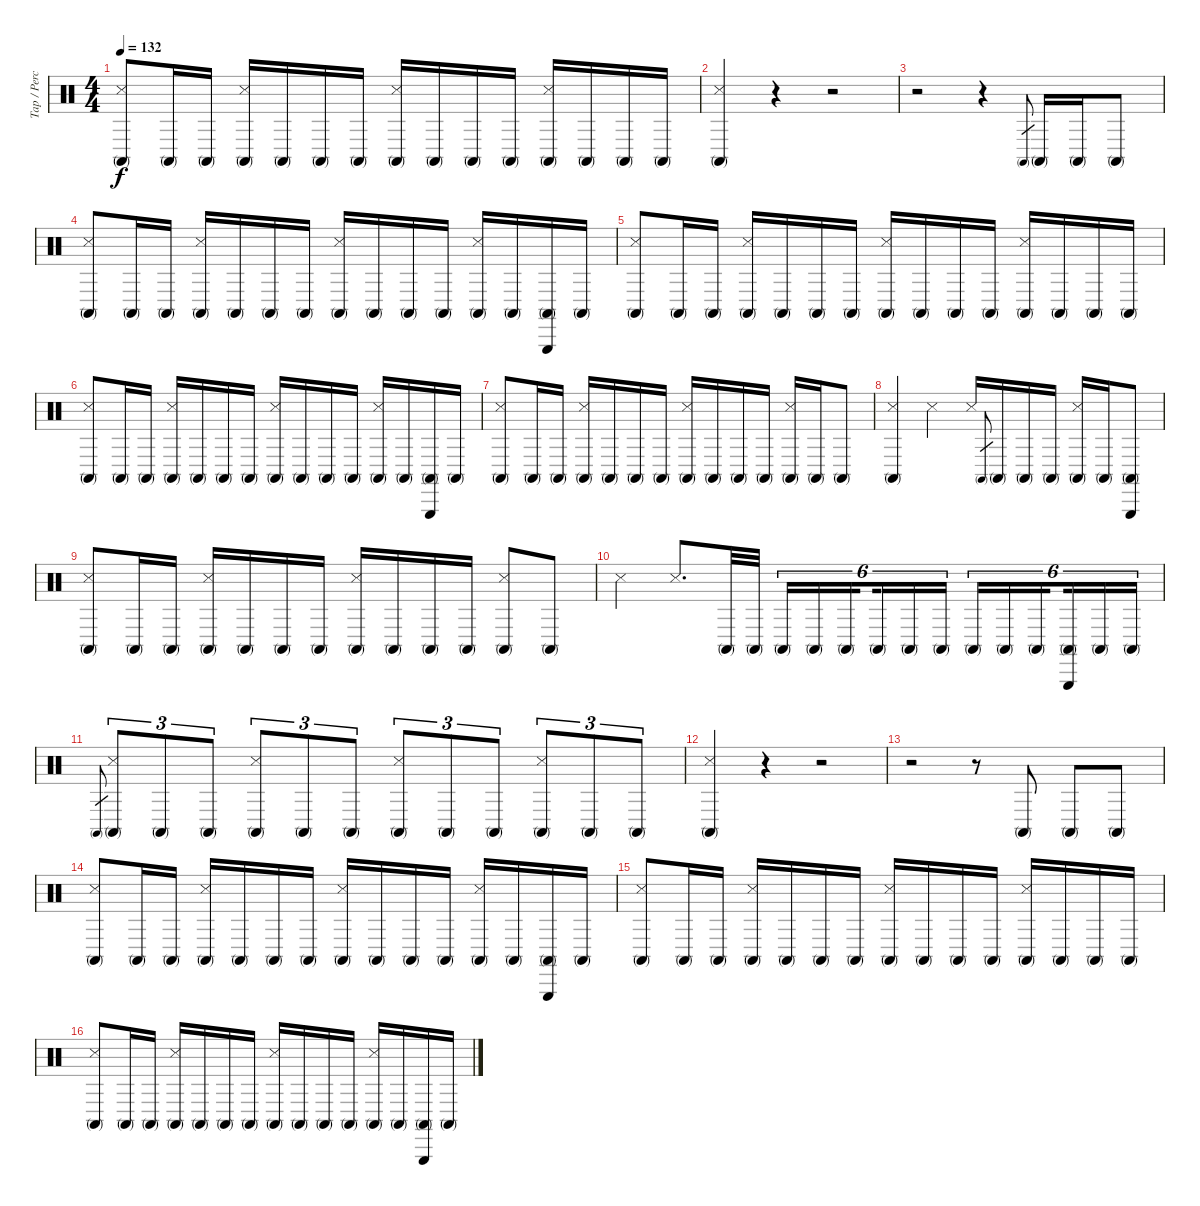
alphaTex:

\track ("Tap / Percussion" "Tap / Perc") {instrument percussion}
\staff {score}
\articulation defaults
\ts (4 4)
\tempo 132
\clef neutral
\ks c
("Conga high (mute)" "Snare (side stick) 3").8{dy f} "Conga high (mute)".16 "Conga high (mute)".16 ("Conga high (mute)" "Snare (side stick) 3").16 "Conga high (mute)".16 "Conga high (mute)".16 "Conga high (mute)".16 ("Conga high (mute)" "Snare (side stick) 3").16 "Conga high (mute)".16 "Conga high (mute)".16 "Conga high (mute)".16 ("Conga high (mute)" "Snare (side stick) 3").16 "Conga high (mute)".16 "Conga high (mute)".16 "Conga high (mute)".16 |
("Conga high (mute)" "Snare (side stick) 3").4 r.4 r.2 |
r.2 r.4 "Conga high (mute)".8{gr} "Conga high (mute)".16 "Conga high (mute)".16 "Conga high (mute)".8 |
("Conga high (mute)" "Snare (side stick) 3").8 "Conga high (mute)".16 "Conga high (mute)".16 ("Conga high (mute)" "Snare (side stick) 3").16 "Conga high (mute)".16 "Conga high (mute)".16 "Conga high (mute)".16 ("Conga high (mute)" "Snare (side stick) 3").16 "Conga high (mute)".16 "Conga high (mute)".16 "Conga high (mute)".16 ("Conga high (mute)" "Snare (side stick) 3").16 "Conga high (mute)".16 ("Conga high (mute)" "Triangle (hit)").16 "Conga high (mute)".16 |
("Conga high (mute)" "Snare (side stick) 3").8 "Conga high (mute)".16 "Conga high (mute)".16 ("Conga high (mute)" "Snare (side stick) 3").16 "Conga high (mute)".16 "Conga high (mute)".16 "Conga high (mute)".16 ("Conga high (mute)" "Snare (side stick) 3").16 "Conga high (mute)".16 "Conga high (mute)".16 "Conga high (mute)".16 ("Conga high (mute)" "Snare (side stick) 3").16 "Conga high (mute)".16 "Conga high (mute)".16 "Conga high (mute)".16 |
("Conga high (mute)" "Snare (side stick) 3").8 "Conga high (mute)".16 "Conga high (mute)".16 ("Conga high (mute)" "Snare (side stick) 3").16 "Conga high (mute)".16 "Conga high (mute)".16 "Conga high (mute)".16 ("Conga high (mute)" "Snare (side stick) 3").16 "Conga high (mute)".16 "Conga high (mute)".16 "Conga high (mute)".16 ("Conga high (mute)" "Snare (side stick) 3").16 "Conga high (mute)".16 ("Conga high (mute)" "Triangle (hit)").16 "Conga high (mute)".16 |
("Conga high (mute)" "Snare (side stick) 3").8 "Conga high (mute)".16 "Conga high (mute)".16 ("Conga high (mute)" "Snare (side stick) 3").16 "Conga high (mute)".16 "Conga high (mute)".16 "Conga high (mute)".16 ("Conga high (mute)" "Snare (side stick) 3").16 "Conga high (mute)".16 "Conga high (mute)".16 "Conga high (mute)".16 ("Conga high (mute)" "Snare (side stick) 3").16 "Conga high (mute)".16 "Conga high (mute)".8 |
("Conga high (mute)" "Snare (side stick) 3").4 "Snare (side stick) 3".4 "Snare (side stick) 3".16 "Conga high (mute)".8{gr} "Conga high (mute)".16 "Conga high (mute)".16 "Conga high (mute)".16 ("Conga high (mute)" "Snare (side stick) 3").16 "Conga high (mute)".16 ("Conga high (mute)" "Triangle (hit)").8 |
("Conga high (mute)" "Snare (side stick) 3").8 "Conga high (mute)".16 "Conga high (mute)".16 ("Conga high (mute)" "Snare (side stick) 3").16 "Conga high (mute)".16 "Conga high (mute)".16 "Conga high (mute)".16 ("Conga high (mute)" "Snare (side stick) 3").16 "Conga high (mute)".16 "Conga high (mute)".16 "Conga high (mute)".16 ("Conga high (mute)" "Snare (side stick) 3").8 "Conga high (mute)".8 |
"Snare (side stick) 3".4 "Snare (side stick) 3".8{d} "Conga high (mute)".32 "Conga high (mute)".32 "Conga high (mute)".16{tu (6 4)} "Conga high (mute)".16{tu (6 4)} "Conga high (mute)".16{tu (6 4) beam splitsecondary} "Conga high (mute)".16{tu (6 4)} "Conga high (mute)".16{tu (6 4)} "Conga high (mute)".16{tu (6 4)} "Conga high (mute)".16{tu (6 4)} "Conga high (mute)".16{tu (6 4)} "Conga high (mute)".16{tu (6 4) beam splitsecondary} ("Conga high (mute)" "Triangle (hit)").16{tu (6 4)} "Conga high (mute)".16{tu (6 4)} "Conga high (mute)".16{tu (6 4)} |
"Conga high (mute)".8{gr} ("Conga high (mute)" "Snare (side stick) 3").8{tu (3 2)} "Conga high (mute)".8{tu (3 2)} "Conga high (mute)".8{tu (3 2)} ("Conga high (mute)" "Snare (side stick) 3").8{tu (3 2)} "Conga high (mute)".8{tu (3 2)} "Conga high (mute)".8{tu (3 2)} ("Conga high (mute)" "Snare (side stick) 3").8{tu (3 2)} "Conga high (mute)".8{tu (3 2)} "Conga high (mute)".8{tu (3 2)} ("Conga high (mute)" "Snare (side stick) 3").8{tu (3 2)} "Conga high (mute)".8{tu (3 2)} "Conga high (mute)".8{tu (3 2)} |
("Conga high (mute)" "Snare (side stick) 3").4 r.4 r.2 |
r.2 r.8 "Conga high (mute)".8 "Conga high (mute)".8 "Conga high (mute)".8 |
("Conga high (mute)" "Snare (side stick) 3").8 "Conga high (mute)".16 "Conga high (mute)".16 ("Conga high (mute)" "Snare (side stick) 3").16 "Conga high (mute)".16 "Conga high (mute)".16 "Conga high (mute)".16 ("Conga high (mute)" "Snare (side stick) 3").16 "Conga high (mute)".16 "Conga high (mute)".16 "Conga high (mute)".16 ("Conga high (mute)" "Snare (side stick) 3").16 "Conga high (mute)".16 ("Conga high (mute)" "Triangle (hit)").16 "Conga high (mute)".16 |
("Conga high (mute)" "Snare (side stick) 3").8 "Conga high (mute)".16 "Conga high (mute)".16 ("Conga high (mute)" "Snare (side stick) 3").16 "Conga high (mute)".16 "Conga high (mute)".16 "Conga high (mute)".16 ("Conga high (mute)" "Snare (side stick) 3").16 "Conga high (mute)".16 "Conga high (mute)".16 "Conga high (mute)".16 ("Conga high (mute)" "Snare (side stick) 3").16 "Conga high (mute)".16 "Conga high (mute)".16 "Conga high (mute)".16 |
("Conga high (mute)" "Snare (side stick) 3").8 "Conga high (mute)".16 "Conga high (mute)".16 ("Conga high (mute)" "Snare (side stick) 3").16 "Conga high (mute)".16 "Conga high (mute)".16 "Conga high (mute)".16 ("Conga high (mute)" "Snare (side stick) 3").16 "Conga high (mute)".16 "Conga high (mute)".16 "Conga high (mute)".16 ("Conga high (mute)" "Snare (side stick) 3").16 "Conga high (mute)".16 ("Conga high (mute)" "Triangle (hit)").16 "Conga high (mute)".16
